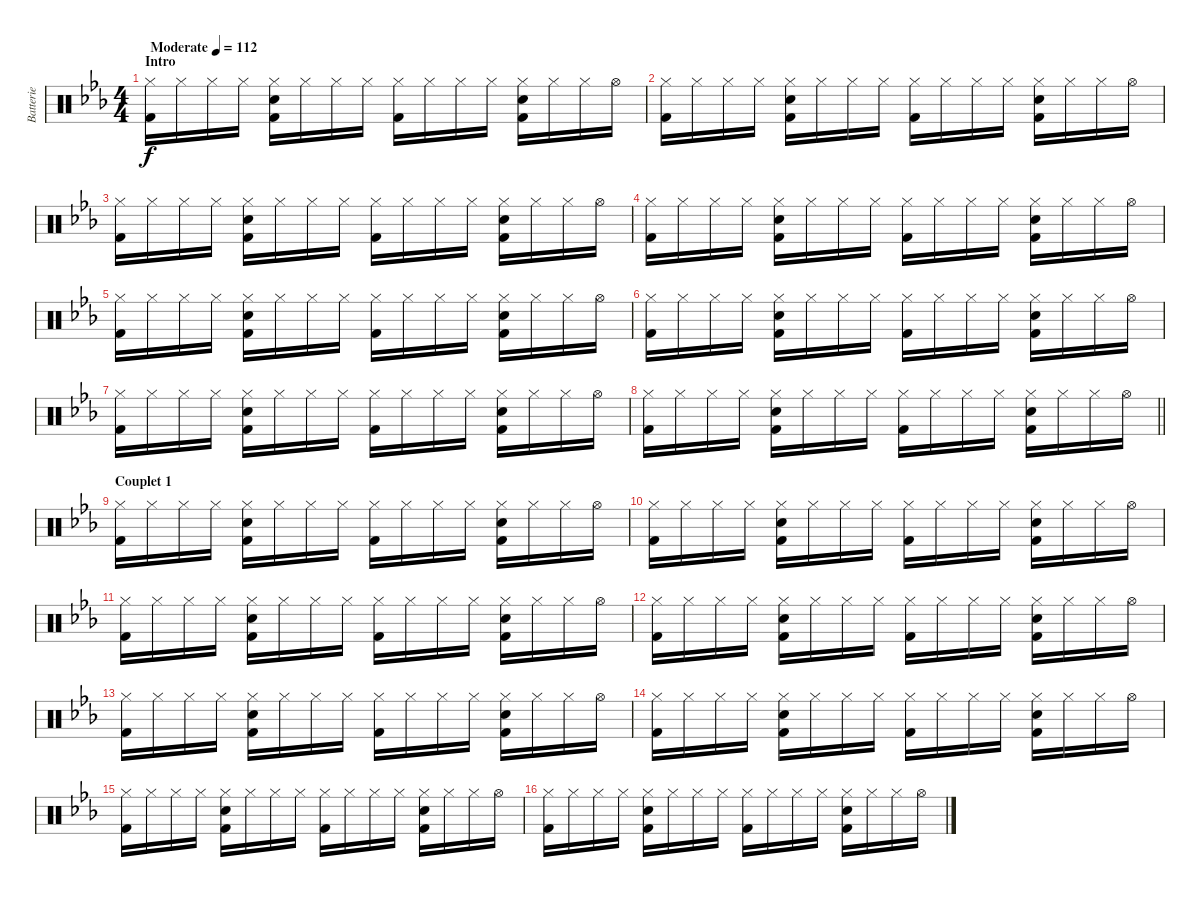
\track ("Batterie" "Batterie") {instrument percussion}
\staff {score}
\articulation defaults
\ts (4 4)
\section ("" "Intro")
\tempo (112 "Moderate")
\clef neutral
\ks cminor
("Hi-Hat (closed)" "Kick (hit) 2").16{dy f} "Hi-Hat (closed)".16 "Hi-Hat (closed)".16 "Hi-Hat (closed)".16 ("Hi-Hat (closed)" "Electric Snare (hit)" "Kick (hit) 2").16 "Hi-Hat (closed)".16 "Hi-Hat (closed)".16 "Hi-Hat (closed)".16 ("Hi-Hat (closed)" "Kick (hit) 2").16 "Hi-Hat (closed)".16 "Hi-Hat (closed)".16 "Hi-Hat (closed)".16 ("Hi-Hat (closed)" "Electric Snare (hit)" "Kick (hit) 2").16 "Hi-Hat (closed)".16 "Hi-Hat (closed)".16 "Hi-Hat (open)".16 |
("Hi-Hat (closed)" "Kick (hit) 2").16 "Hi-Hat (closed)".16 "Hi-Hat (closed)".16 "Hi-Hat (closed)".16 ("Hi-Hat (closed)" "Electric Snare (hit)" "Kick (hit) 2").16 "Hi-Hat (closed)".16 "Hi-Hat (closed)".16 "Hi-Hat (closed)".16 ("Hi-Hat (closed)" "Kick (hit) 2").16 "Hi-Hat (closed)".16 "Hi-Hat (closed)".16 "Hi-Hat (closed)".16 ("Hi-Hat (closed)" "Electric Snare (hit)" "Kick (hit) 2").16 "Hi-Hat (closed)".16 "Hi-Hat (closed)".16 "Hi-Hat (open)".16 |
("Hi-Hat (closed)" "Kick (hit) 2").16 "Hi-Hat (closed)".16 "Hi-Hat (closed)".16 "Hi-Hat (closed)".16 ("Hi-Hat (closed)" "Electric Snare (hit)" "Kick (hit) 2").16 "Hi-Hat (closed)".16 "Hi-Hat (closed)".16 "Hi-Hat (closed)".16 ("Hi-Hat (closed)" "Kick (hit) 2").16 "Hi-Hat (closed)".16 "Hi-Hat (closed)".16 "Hi-Hat (closed)".16 ("Hi-Hat (closed)" "Electric Snare (hit)" "Kick (hit) 2").16 "Hi-Hat (closed)".16 "Hi-Hat (closed)".16 "Hi-Hat (open)".16 |
("Hi-Hat (closed)" "Kick (hit) 2").16 "Hi-Hat (closed)".16 "Hi-Hat (closed)".16 "Hi-Hat (closed)".16 ("Hi-Hat (closed)" "Electric Snare (hit)" "Kick (hit) 2").16 "Hi-Hat (closed)".16 "Hi-Hat (closed)".16 "Hi-Hat (closed)".16 ("Hi-Hat (closed)" "Kick (hit) 2").16 "Hi-Hat (closed)".16 "Hi-Hat (closed)".16 "Hi-Hat (closed)".16 ("Hi-Hat (closed)" "Electric Snare (hit)" "Kick (hit) 2").16 "Hi-Hat (closed)".16 "Hi-Hat (closed)".16 "Hi-Hat (open)".16 |
("Hi-Hat (closed)" "Kick (hit) 2").16 "Hi-Hat (closed)".16 "Hi-Hat (closed)".16 "Hi-Hat (closed)".16 ("Hi-Hat (closed)" "Electric Snare (hit)" "Kick (hit) 2").16 "Hi-Hat (closed)".16 "Hi-Hat (closed)".16 "Hi-Hat (closed)".16 ("Hi-Hat (closed)" "Kick (hit) 2").16 "Hi-Hat (closed)".16 "Hi-Hat (closed)".16 "Hi-Hat (closed)".16 ("Hi-Hat (closed)" "Electric Snare (hit)" "Kick (hit) 2").16 "Hi-Hat (closed)".16 "Hi-Hat (closed)".16 "Hi-Hat (open)".16 |
("Hi-Hat (closed)" "Kick (hit) 2").16 "Hi-Hat (closed)".16 "Hi-Hat (closed)".16 "Hi-Hat (closed)".16 ("Hi-Hat (closed)" "Electric Snare (hit)" "Kick (hit) 2").16 "Hi-Hat (closed)".16 "Hi-Hat (closed)".16 "Hi-Hat (closed)".16 ("Hi-Hat (closed)" "Kick (hit) 2").16 "Hi-Hat (closed)".16 "Hi-Hat (closed)".16 "Hi-Hat (closed)".16 ("Hi-Hat (closed)" "Electric Snare (hit)" "Kick (hit) 2").16 "Hi-Hat (closed)".16 "Hi-Hat (closed)".16 "Hi-Hat (open)".16 |
("Hi-Hat (closed)" "Kick (hit) 2").16 "Hi-Hat (closed)".16 "Hi-Hat (closed)".16 "Hi-Hat (closed)".16 ("Hi-Hat (closed)" "Electric Snare (hit)" "Kick (hit) 2").16 "Hi-Hat (closed)".16 "Hi-Hat (closed)".16 "Hi-Hat (closed)".16 ("Hi-Hat (closed)" "Kick (hit) 2").16 "Hi-Hat (closed)".16 "Hi-Hat (closed)".16 "Hi-Hat (closed)".16 ("Hi-Hat (closed)" "Electric Snare (hit)" "Kick (hit) 2").16 "Hi-Hat (closed)".16 "Hi-Hat (closed)".16 "Hi-Hat (open)".16 |
\barLineRight lightlight
("Hi-Hat (closed)" "Kick (hit) 2").16 "Hi-Hat (closed)".16 "Hi-Hat (closed)".16 "Hi-Hat (closed)".16 ("Hi-Hat (closed)" "Electric Snare (hit)" "Kick (hit) 2").16 "Hi-Hat (closed)".16 "Hi-Hat (closed)".16 "Hi-Hat (closed)".16 ("Hi-Hat (closed)" "Kick (hit) 2").16 "Hi-Hat (closed)".16 "Hi-Hat (closed)".16 "Hi-Hat (closed)".16 ("Hi-Hat (closed)" "Electric Snare (hit)" "Kick (hit) 2").16 "Hi-Hat (closed)".16 "Hi-Hat (closed)".16 "Hi-Hat (open)".16 |
\section ("" "Couplet 1")
("Hi-Hat (closed)" "Kick (hit) 2").16 "Hi-Hat (closed)".16 "Hi-Hat (closed)".16 "Hi-Hat (closed)".16 ("Hi-Hat (closed)" "Electric Snare (hit)" "Kick (hit) 2").16 "Hi-Hat (closed)".16 "Hi-Hat (closed)".16 "Hi-Hat (closed)".16 ("Hi-Hat (closed)" "Kick (hit) 2").16 "Hi-Hat (closed)".16 "Hi-Hat (closed)".16 "Hi-Hat (closed)".16 ("Hi-Hat (closed)" "Electric Snare (hit)" "Kick (hit) 2").16 "Hi-Hat (closed)".16 "Hi-Hat (closed)".16 "Hi-Hat (open)".16 |
("Hi-Hat (closed)" "Kick (hit) 2").16 "Hi-Hat (closed)".16 "Hi-Hat (closed)".16 "Hi-Hat (closed)".16 ("Hi-Hat (closed)" "Electric Snare (hit)" "Kick (hit) 2").16 "Hi-Hat (closed)".16 "Hi-Hat (closed)".16 "Hi-Hat (closed)".16 ("Hi-Hat (closed)" "Kick (hit) 2").16 "Hi-Hat (closed)".16 "Hi-Hat (closed)".16 "Hi-Hat (closed)".16 ("Hi-Hat (closed)" "Electric Snare (hit)" "Kick (hit) 2").16 "Hi-Hat (closed)".16 "Hi-Hat (closed)".16 "Hi-Hat (open)".16 |
("Hi-Hat (closed)" "Kick (hit) 2").16 "Hi-Hat (closed)".16 "Hi-Hat (closed)".16 "Hi-Hat (closed)".16 ("Hi-Hat (closed)" "Electric Snare (hit)" "Kick (hit) 2").16 "Hi-Hat (closed)".16 "Hi-Hat (closed)".16 "Hi-Hat (closed)".16 ("Hi-Hat (closed)" "Kick (hit) 2").16 "Hi-Hat (closed)".16 "Hi-Hat (closed)".16 "Hi-Hat (closed)".16 ("Hi-Hat (closed)" "Electric Snare (hit)" "Kick (hit) 2").16 "Hi-Hat (closed)".16 "Hi-Hat (closed)".16 "Hi-Hat (open)".16 |
("Hi-Hat (closed)" "Kick (hit) 2").16 "Hi-Hat (closed)".16 "Hi-Hat (closed)".16 "Hi-Hat (closed)".16 ("Hi-Hat (closed)" "Electric Snare (hit)" "Kick (hit) 2").16 "Hi-Hat (closed)".16 "Hi-Hat (closed)".16 "Hi-Hat (closed)".16 ("Hi-Hat (closed)" "Kick (hit) 2").16 "Hi-Hat (closed)".16 "Hi-Hat (closed)".16 "Hi-Hat (closed)".16 ("Hi-Hat (closed)" "Electric Snare (hit)" "Kick (hit) 2").16 "Hi-Hat (closed)".16 "Hi-Hat (closed)".16 "Hi-Hat (open)".16 |
("Hi-Hat (closed)" "Kick (hit) 2").16 "Hi-Hat (closed)".16 "Hi-Hat (closed)".16 "Hi-Hat (closed)".16 ("Hi-Hat (closed)" "Electric Snare (hit)" "Kick (hit) 2").16 "Hi-Hat (closed)".16 "Hi-Hat (closed)".16 "Hi-Hat (closed)".16 ("Hi-Hat (closed)" "Kick (hit) 2").16 "Hi-Hat (closed)".16 "Hi-Hat (closed)".16 "Hi-Hat (closed)".16 ("Hi-Hat (closed)" "Electric Snare (hit)" "Kick (hit) 2").16 "Hi-Hat (closed)".16 "Hi-Hat (closed)".16 "Hi-Hat (open)".16 |
("Hi-Hat (closed)" "Kick (hit) 2").16 "Hi-Hat (closed)".16 "Hi-Hat (closed)".16 "Hi-Hat (closed)".16 ("Hi-Hat (closed)" "Electric Snare (hit)" "Kick (hit) 2").16 "Hi-Hat (closed)".16 "Hi-Hat (closed)".16 "Hi-Hat (closed)".16 ("Hi-Hat (closed)" "Kick (hit) 2").16 "Hi-Hat (closed)".16 "Hi-Hat (closed)".16 "Hi-Hat (closed)".16 ("Hi-Hat (closed)" "Electric Snare (hit)" "Kick (hit) 2").16 "Hi-Hat (closed)".16 "Hi-Hat (closed)".16 "Hi-Hat (open)".16 |
("Hi-Hat (closed)" "Kick (hit) 2").16 "Hi-Hat (closed)".16 "Hi-Hat (closed)".16 "Hi-Hat (closed)".16 ("Hi-Hat (closed)" "Electric Snare (hit)" "Kick (hit) 2").16 "Hi-Hat (closed)".16 "Hi-Hat (closed)".16 "Hi-Hat (closed)".16 ("Hi-Hat (closed)" "Kick (hit) 2").16 "Hi-Hat (closed)".16 "Hi-Hat (closed)".16 "Hi-Hat (closed)".16 ("Hi-Hat (closed)" "Electric Snare (hit)" "Kick (hit) 2").16 "Hi-Hat (closed)".16 "Hi-Hat (closed)".16 "Hi-Hat (open)".16 |
("Hi-Hat (closed)" "Kick (hit) 2").16 "Hi-Hat (closed)".16 "Hi-Hat (closed)".16 "Hi-Hat (closed)".16 ("Hi-Hat (closed)" "Electric Snare (hit)" "Kick (hit) 2").16 "Hi-Hat (closed)".16 "Hi-Hat (closed)".16 "Hi-Hat (closed)".16 ("Hi-Hat (closed)" "Kick (hit) 2").16 "Hi-Hat (closed)".16 "Hi-Hat (closed)".16 "Hi-Hat (closed)".16 ("Hi-Hat (closed)" "Electric Snare (hit)" "Kick (hit) 2").16 "Hi-Hat (closed)".16 "Hi-Hat (closed)".16 "Hi-Hat (open)".16
